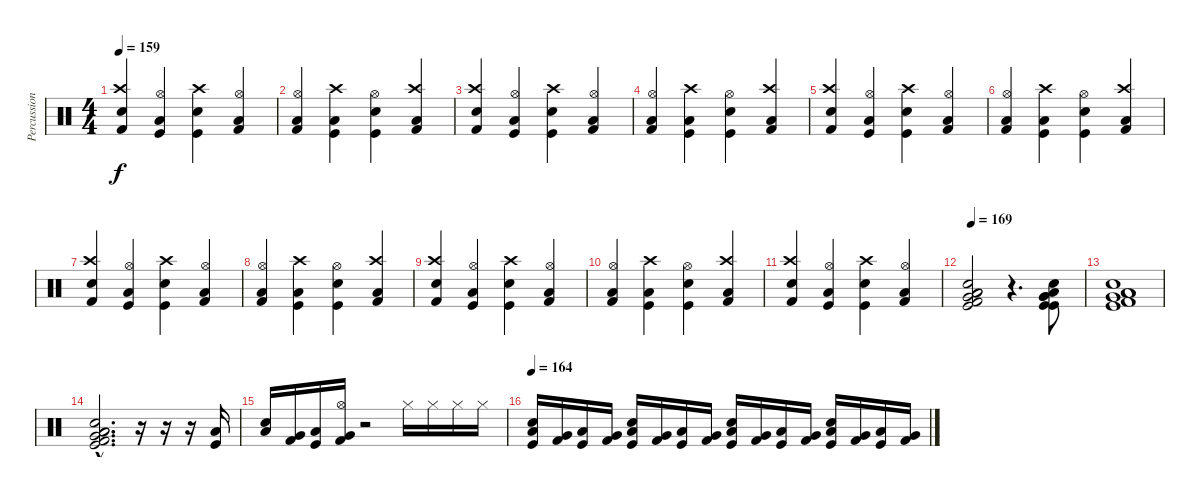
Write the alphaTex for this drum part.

\track ("Percussions" "Percussion") {instrument percussion}
\staff {score}
\articulation defaults
\ts (4 4)
\tempo 159
\clef neutral
\ks c
("Kick (hit) 2" "Crash high (hit)" "Electric Snare (hit)").4{dy f} ("Kick (hit)" "Hi-Hat (open)" "Low Tom (hit)").4 ("Kick (hit)" "Crash high (hit)" "Electric Snare (hit)").4 ("Kick (hit) 2" "Hi-Hat (open)" "Low Tom (hit)").4 |
("Kick (hit) 2" "Hi-Hat (open)" "Low Tom (hit)").4 ("Kick (hit)" "Crash high (hit)" "Low Tom (hit)").4 ("Kick (hit)" "Hi-Hat (open)" "Electric Snare (hit)").4 ("Kick (hit) 2" "Crash high (hit)" "Low Tom (hit)").4 |
("Kick (hit) 2" "Crash high (hit)" "Electric Snare (hit)").4 ("Kick (hit)" "Hi-Hat (open)" "Low Tom (hit)").4 ("Kick (hit)" "Crash high (hit)" "Electric Snare (hit)").4 ("Kick (hit) 2" "Hi-Hat (open)" "Low Tom (hit)").4 |
("Kick (hit) 2" "Hi-Hat (open)" "Low Tom (hit)").4 ("Kick (hit)" "Crash high (hit)" "Low Tom (hit)").4 ("Kick (hit)" "Hi-Hat (open)" "Electric Snare (hit)").4 ("Kick (hit) 2" "Crash high (hit)" "Low Tom (hit)").4 |
("Kick (hit) 2" "Crash high (hit)" "Electric Snare (hit)").4 ("Kick (hit)" "Hi-Hat (open)" "Low Tom (hit)").4 ("Kick (hit)" "Crash high (hit)" "Electric Snare (hit)").4 ("Kick (hit) 2" "Hi-Hat (open)" "Low Tom (hit)").4 |
("Kick (hit) 2" "Hi-Hat (open)" "Low Tom (hit)").4 ("Kick (hit)" "Crash high (hit)" "Low Tom (hit)").4 ("Kick (hit)" "Hi-Hat (open)" "Electric Snare (hit)").4 ("Kick (hit) 2" "Crash high (hit)" "Low Tom (hit)").4 |
("Kick (hit) 2" "Crash high (hit)" "Electric Snare (hit)").4 ("Kick (hit)" "Hi-Hat (open)" "Low Tom (hit)").4 ("Kick (hit)" "Crash high (hit)" "Electric Snare (hit)").4 ("Kick (hit) 2" "Hi-Hat (open)" "Low Tom (hit)").4 |
("Kick (hit) 2" "Hi-Hat (open)" "Low Tom (hit)").4 ("Kick (hit)" "Crash high (hit)" "Low Tom (hit)").4 ("Kick (hit)" "Hi-Hat (open)" "Electric Snare (hit)").4 ("Kick (hit) 2" "Crash high (hit)" "Low Tom (hit)").4 |
("Kick (hit) 2" "Crash high (hit)" "Electric Snare (hit)").4 ("Kick (hit)" "Hi-Hat (open)" "Low Tom (hit)").4 ("Kick (hit)" "Crash high (hit)" "Electric Snare (hit)").4 ("Kick (hit) 2" "Hi-Hat (open)" "Low Tom (hit)").4 |
("Kick (hit) 2" "Hi-Hat (open)" "Low Tom (hit)").4 ("Kick (hit)" "Crash high (hit)" "Low Tom (hit)").4 ("Kick (hit)" "Hi-Hat (open)" "Electric Snare (hit)").4 ("Kick (hit) 2" "Crash high (hit)" "Low Tom (hit)").4 |
("Kick (hit) 2" "Crash high (hit)" "Electric Snare (hit)").4 ("Kick (hit)" "Hi-Hat (open)" "Low Tom (hit)").4 ("Kick (hit)" "Crash high (hit)" "Electric Snare (hit)").4 ("Kick (hit) 2" "Hi-Hat (open)" "Low Tom (hit)").4 |
\tempo 169
("Low Tom (hit)" "Electric Snare (hit)" "Kick (hit)" "Kick (hit) 2" "Very Low Tom (hit)" "Low Floor Tom (hit)").2 r.4{d} ("Very Low Tom (hit)" "Electric Snare (hit)" "Kick (hit)" "Kick (hit)" "Very Low Tom (hit)" "Low Floor Tom (hit)").8 |
("Low Tom (hit)" "Electric Snare (hit)" "Kick (hit)" "Kick (hit) 2" "Very Low Tom (hit)" "Low Floor Tom (hit)").1 |
("Low Tom (hit)"{hac} "Electric Snare (hit)"{hac} "Kick (hit)"{hac} "Kick (hit) 2"{hac} "Very Low Tom (hit)"{hac} "Low Floor Tom (hit)"{hac}).2{d} r.16 r.16 r.16 ("Kick (hit)" "Low Tom (hit)").16 |
("Electric Snare (hit)" "Low Floor Tom (hit)").16 ("Kick (hit) 2" "Very Low Tom (hit)").16 ("Kick (hit)" "Low Tom (hit)").16 ("Kick (hit) 2" "Hi-Hat (open)" "Very Low Tom (hit)").16 r.2 "Hi-Hat (closed)".16 "Hi-Hat (closed)".16 "Hi-Hat (closed)".16 "Hi-Hat (closed)".16 |
\tempo 164
("Kick (hit)" "Low Tom (hit)" "Electric Snare (hit)").16 ("Kick (hit) 2" "Very Low Tom (hit)").16 ("Kick (hit)" "Low Tom (hit)").16 ("Kick (hit) 2" "Very Low Tom (hit)").16 ("Kick (hit)" "Low Tom (hit)" "Electric Snare (hit)").16 ("Kick (hit) 2" "Very Low Tom (hit)").16 ("Kick (hit)" "Low Tom (hit)").16 ("Kick (hit) 2" "Very Low Tom (hit)").16 ("Kick (hit)" "Low Tom (hit)" "Electric Snare (hit)").16 ("Kick (hit) 2" "Very Low Tom (hit)").16 ("Kick (hit)" "Low Tom (hit)").16 ("Kick (hit) 2" "Very Low Tom (hit)").16 ("Kick (hit)" "Low Tom (hit)" "Electric Snare (hit)").16 ("Kick (hit) 2" "Very Low Tom (hit)").16 ("Kick (hit)" "Low Tom (hit)").16 ("Kick (hit) 2" "Very Low Tom (hit)").16
